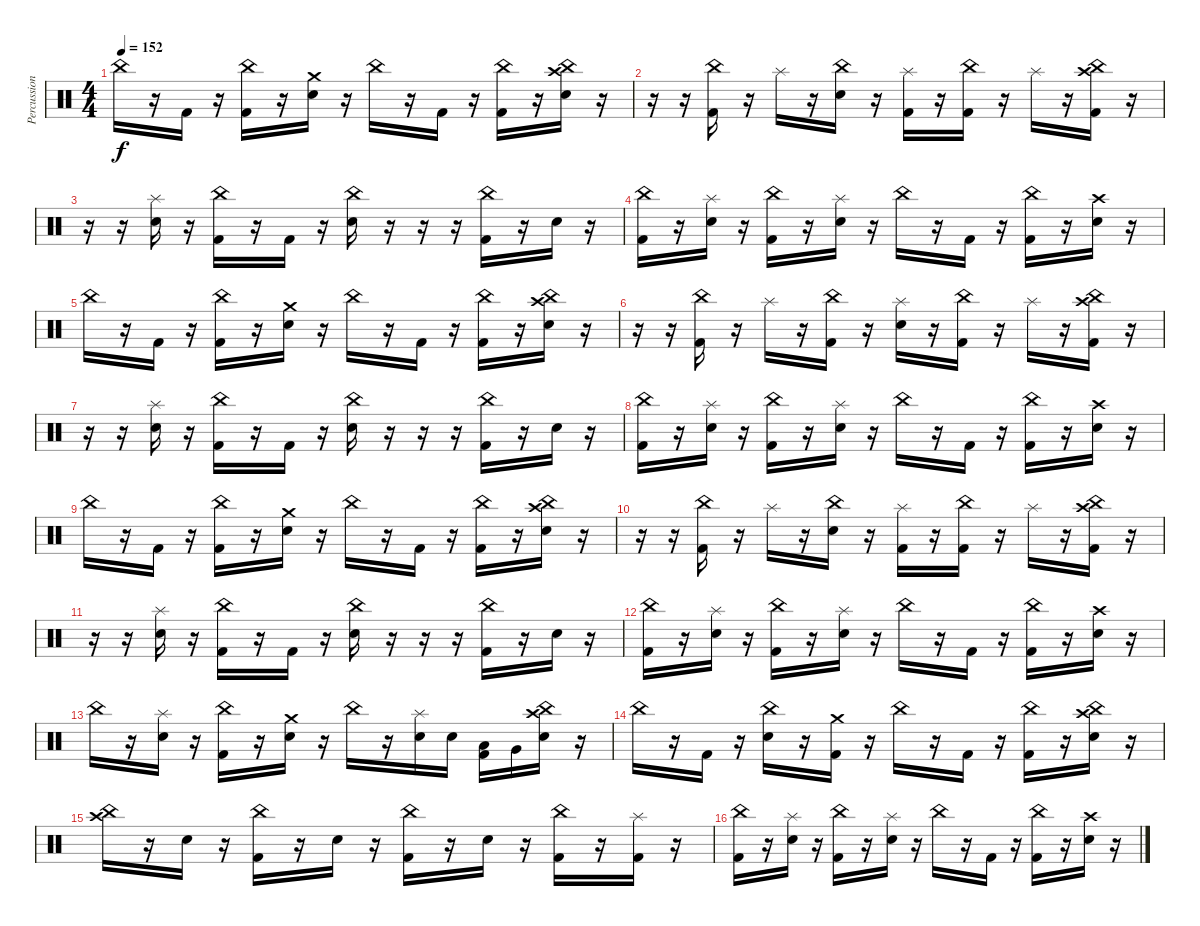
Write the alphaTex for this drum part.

\track ("Percussion" "Percussion") {instrument percussion}
\staff {score}
\articulation defaults
\ts (4 4)
\tempo 152
\clef neutral
\ks c "China (hit)".16{dy f}
r.16 "Kick (hit) 2".16 r.16 ("China (hit)" "Kick (hit) 2").16 r.16 ("Crash medium (hit)" "Electric Snare (hit)").16 r.16 "China (hit)".16 r.16 "Kick (hit) 2".16 r.16 ("China (hit)" "Kick (hit) 2").16 r.16 ("China (hit)" "Crash high (hit)" "Electric Snare (hit)").16 r.16 |
r.16 r.16 ("China (hit)" "Kick (hit) 2").16 r.16 "Splash (hit)".16 r.16 ("China (hit)" "Electric Snare (hit)").16 r.16 ("Splash (hit)" "Kick (hit) 2").16 r.16 ("China (hit)" "Kick (hit) 2").16 r.16 "Splash (hit)".16 r.16 ("China (hit)" "Crash high (hit)" "Kick (hit) 2").16 r.16 |
r.16 r.16 ("Splash (hit)" "Electric Snare (hit)").16 r.16 ("China (hit)" "Kick (hit) 2").16 r.16 "Kick (hit) 2".16 r.16 ("China (hit)" "Electric Snare (hit)").16 r.16 r.16 r.16 ("China (hit)" "Kick (hit) 2").16 r.16 "Electric Snare (hit)".16 r.16 |
("China (hit)" "Kick (hit) 2").16 r.16 ("Splash (hit)" "Electric Snare (hit)").16 r.16 ("China (hit)" "Kick (hit) 2").16 r.16 ("Splash (hit)" "Electric Snare (hit)").16 r.16 "China (hit)".16 r.16 "Kick (hit) 2".16 r.16 ("China (hit)" "Kick (hit) 2").16 r.16 ("Crash high (hit)" "Electric Snare (hit)").16 r.16 |
"China (hit)".16 r.16 "Kick (hit) 2".16 r.16 ("China (hit)" "Kick (hit) 2").16 r.16 ("Crash medium (hit)" "Electric Snare (hit)").16 r.16 "China (hit)".16 r.16 "Kick (hit) 2".16 r.16 ("China (hit)" "Kick (hit) 2").16 r.16 ("China (hit)" "Crash high (hit)" "Electric Snare (hit)").16 r.16 |
r.16 r.16 ("China (hit)" "Kick (hit) 2").16 r.16 "Splash (hit)".16 r.16 ("China (hit)" "Kick (hit) 2").16 r.16 ("Splash (hit)" "Electric Snare (hit)").16 r.16 ("China (hit)" "Kick (hit) 2").16 r.16 "Splash (hit)".16 r.16 ("China (hit)" "Crash high (hit)" "Kick (hit) 2").16 r.16 |
r.16 r.16 ("Splash (hit)" "Electric Snare (hit)").16 r.16 ("China (hit)" "Kick (hit) 2").16 r.16 "Kick (hit) 2".16 r.16 ("China (hit)" "Electric Snare (hit)").16 r.16 r.16 r.16 ("China (hit)" "Kick (hit) 2").16 r.16 "Electric Snare (hit)".16 r.16 |
("China (hit)" "Kick (hit) 2").16 r.16 ("Splash (hit)" "Electric Snare (hit)").16 r.16 ("China (hit)" "Kick (hit) 2").16 r.16 ("Splash (hit)" "Electric Snare (hit)").16 r.16 "China (hit)".16 r.16 "Kick (hit) 2".16 r.16 ("China (hit)" "Kick (hit) 2").16 r.16 ("Crash high (hit)" "Electric Snare (hit)").16 r.16 |
"China (hit)".16 r.16 "Kick (hit) 2".16 r.16 ("China (hit)" "Kick (hit) 2").16 r.16 ("Crash medium (hit)" "Electric Snare (hit)").16 r.16 "China (hit)".16 r.16 "Kick (hit) 2".16 r.16 ("China (hit)" "Kick (hit) 2").16 r.16 ("China (hit)" "Crash high (hit)" "Electric Snare (hit)").16 r.16 |
r.16 r.16 ("China (hit)" "Kick (hit) 2").16 r.16 "Splash (hit)".16 r.16 ("China (hit)" "Electric Snare (hit)").16 r.16 ("Splash (hit)" "Kick (hit) 2").16 r.16 ("China (hit)" "Kick (hit) 2").16 r.16 "Splash (hit)".16 r.16 ("China (hit)" "Crash high (hit)" "Kick (hit) 2").16 r.16 |
r.16 r.16 ("Splash (hit)" "Electric Snare (hit)").16 r.16 ("China (hit)" "Kick (hit) 2").16 r.16 "Kick (hit) 2".16 r.16 ("China (hit)" "Electric Snare (hit)").16 r.16 r.16 r.16 ("China (hit)" "Kick (hit) 2").16 r.16 "Electric Snare (hit)".16 r.16 |
("China (hit)" "Kick (hit) 2").16 r.16 ("Splash (hit)" "Electric Snare (hit)").16 r.16 ("China (hit)" "Kick (hit) 2").16 r.16 ("Splash (hit)" "Electric Snare (hit)").16 r.16 "China (hit)".16 r.16 "Kick (hit) 2".16 r.16 ("China (hit)" "Kick (hit) 2").16 r.16 ("Crash high (hit)" "Electric Snare (hit)").16 r.16 |
"China (hit)".16 r.16 ("Splash (hit)" "Electric Snare (hit)").16 r.16 ("China (hit)" "Kick (hit) 2").16 r.16 ("Crash medium (hit)" "Electric Snare (hit)").16 r.16 "China (hit)".16 r.16 ("Splash (hit)" "Electric Snare (hit)").16 "Electric Snare (hit)".16 ("Low Tom (hit)" "Kick (hit) 2").16 "Very Low Tom (hit)".16 ("China (hit)" "Crash high (hit)" "Electric Snare (hit)").16{volume 12} r.16 |
"China (hit)".16 r.16 "Kick (hit) 2".16 r.16 ("China (hit)" "Electric Snare (hit)").16 r.16 ("Crash medium (hit)" "Kick (hit) 2").16 r.16 "China (hit)".16 r.16 "Kick (hit) 2".16 r.16 ("China (hit)" "Kick (hit) 2").16 r.16 ("China (hit)" "Crash high (hit)" "Electric Snare (hit)").16 r.16 |
("Crash high (hit)" "China (hit)").16 r.16 "Electric Snare (hit)".16 r.16 ("China (hit)" "Kick (hit) 2").16 r.16 "Electric Snare (hit)".16 r.16 ("China (hit)" "Kick (hit) 2").16 r.16 "Electric Snare (hit)".16 r.16 ("China (hit)" "Kick (hit) 2").16 r.16 ("Splash (hit)" "Kick (hit) 2").16 r.16 |
("China (hit)" "Kick (hit) 2").16 r.16 ("Splash (hit)" "Electric Snare (hit)").16 r.16 ("China (hit)" "Kick (hit) 2").16 r.16 ("Splash (hit)" "Electric Snare (hit)").16 r.16 "China (hit)".16 r.16 "Kick (hit) 2".16 r.16 ("China (hit)" "Kick (hit) 2").16 r.16 ("Crash high (hit)" "Electric Snare (hit)").16 r.16
